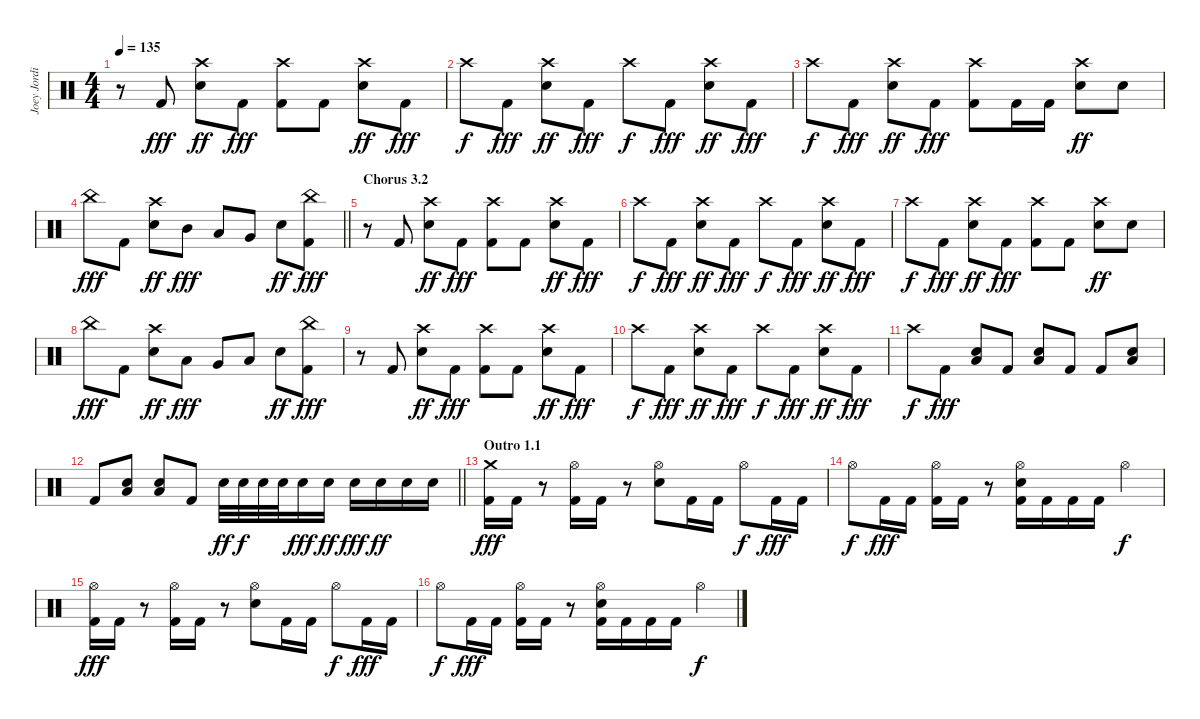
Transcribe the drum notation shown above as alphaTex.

\track ("Joey Jordison" "Joey Jordi") {instrument percussion}
\staff {score}
\articulation defaults
\ts (4 4)
\tempo 135
\clef neutral
\ks c
r.8{dy fff} "Kick (hit) 2".8 ("Crash high (hit)" "Electric Snare (hit)").8{dy ff} "Kick (hit) 2".8{dy fff} ("Crash high (hit)" "Kick (hit) 2").8 "Kick (hit) 2".8 ("Crash high (hit)" "Electric Snare (hit)").8{dy ff} "Kick (hit) 2".8{dy fff} |
"Crash high (hit)".8{dy f} "Kick (hit) 2".8{dy fff} ("Crash high (hit)" "Electric Snare (hit)").8{dy ff} "Kick (hit) 2".8{dy fff} "Crash high (hit)".8{dy f} "Kick (hit) 2".8{dy fff} ("Crash high (hit)" "Electric Snare (hit)").8{dy ff} "Kick (hit) 2".8{dy fff} |
"Crash high (hit)".8{dy f} "Kick (hit) 2".8{dy fff} ("Crash high (hit)" "Electric Snare (hit)").8{dy ff} "Kick (hit) 2".8{dy fff} ("Crash high (hit)" "Kick (hit) 2").8 "Kick (hit) 2".16 "Kick (hit) 2".16 ("Crash high (hit)" "Electric Snare (hit)").8{dy ff} "Electric Snare (hit)".8 |
\barLineRight lightlight "China (hit)".8{dy fff} "Kick (hit) 2".8
("Crash high (hit)" "Electric Snare (hit)").8{dy ff} "Mid Tom (hit)".8{dy fff} "Low Tom (hit)".8 "Very Low Tom (hit)".8 "Electric Snare (hit)".8{dy ff} ("China (hit)" "Kick (hit) 2").8{dy fff} |
\section ("" "Chorus 3.2")
r.8 "Kick (hit) 2".8 ("Crash high (hit)" "Electric Snare (hit)").8{dy ff} "Kick (hit) 2".8{dy fff} ("Crash high (hit)" "Kick (hit) 2").8 "Kick (hit) 2".8 ("Crash high (hit)" "Electric Snare (hit)").8{dy ff} "Kick (hit) 2".8{dy fff} |
"Crash high (hit)".8{dy f} "Kick (hit) 2".8{dy fff} ("Crash high (hit)" "Electric Snare (hit)").8{dy ff} "Kick (hit) 2".8{dy fff} "Crash high (hit)".8{dy f} "Kick (hit) 2".8{dy fff} ("Crash high (hit)" "Electric Snare (hit)").8{dy ff} "Kick (hit) 2".8{dy fff} |
"Crash high (hit)".8{dy f} "Kick (hit) 2".8{dy fff} ("Crash high (hit)" "Electric Snare (hit)").8{dy ff} "Kick (hit) 2".8{dy fff} ("Crash high (hit)" "Kick (hit) 2").8 "Kick (hit) 2".8 ("Crash high (hit)" "Electric Snare (hit)").8{dy ff} "Electric Snare (hit)".8 |
"China (hit)".8{dy fff} "Kick (hit) 2".8 ("Crash high (hit)" "Electric Snare (hit)").8{dy ff} "Low Tom (hit)".8{dy fff} "Very Low Tom (hit)".8 "Low Floor Tom (hit)".8 "Electric Snare (hit)".8{dy ff} ("China (hit)" "Kick (hit) 2").8{dy fff} |
r.8 "Kick (hit) 2".8 ("Crash high (hit)" "Electric Snare (hit)").8{dy ff} "Kick (hit) 2".8{dy fff} ("Crash high (hit)" "Kick (hit) 2").8 "Kick (hit) 2".8 ("Crash high (hit)" "Electric Snare (hit)").8{dy ff} "Kick (hit) 2".8{dy fff} |
"Crash high (hit)".8{dy f} "Kick (hit) 2".8{dy fff} ("Crash high (hit)" "Electric Snare (hit)").8{dy ff} "Kick (hit) 2".8{dy fff} "Crash high (hit)".8{dy f} "Kick (hit) 2".8{dy fff} ("Crash high (hit)" "Electric Snare (hit)").8{dy ff} "Kick (hit) 2".8{dy fff} |
"Crash high (hit)".8{dy f} "Kick (hit) 2".8{dy fff} ("Electric Snare (hit)" "Low Floor Tom (hit)").8 "Kick (hit) 2".8 ("Electric Snare (hit)" "Low Floor Tom (hit)").8 "Kick (hit) 2".8 "Kick (hit) 2".8 ("Electric Snare (hit)" "Low Floor Tom (hit)").8 |
\barLineRight lightlight "Kick (hit) 2".8
("Electric Snare (hit)" "Low Floor Tom (hit)").8 ("Electric Snare (hit)" "Low Floor Tom (hit)").8 "Kick (hit) 2".8 "Electric Snare (hit)".32{dy ff} "Electric Snare (hit)".32{dy f} "Electric Snare (hit)".32 "Electric Snare (hit)".32 "Electric Snare (hit)".16{dy fff} "Electric Snare (hit)".16{dy ff} "Electric Snare (hit)".16{dy fff} "Electric Snare (hit)".16{dy ff} "Electric Snare (hit)".16 "Electric Snare (hit)".16 |
\section ("" "Outro 1.1")
("Crash medium (hit)" "Kick (hit) 2").16{dy fff} "Kick (hit) 2".16 r.8 ("Hi-Hat (open)" "Kick (hit) 2").16 "Kick (hit) 2".16 r.8 ("Hi-Hat (open)" "Electric Snare (hit)").8 "Kick (hit) 2".16 "Kick (hit) 2".16 "Hi-Hat (open)".8{dy f} "Kick (hit) 2".16{dy fff} "Kick (hit) 2".16 |
"Hi-Hat (open)".8{dy f} "Kick (hit) 2".16{dy fff} "Kick (hit) 2".16 ("Hi-Hat (open)" "Kick (hit) 2").16 "Kick (hit) 2".16 r.8 ("Hi-Hat (open)" "Electric Snare (hit)" "Kick (hit) 2").16 "Kick (hit) 2".16 "Kick (hit) 2".16 "Kick (hit) 2".16 "Hi-Hat (open)".4{dy f} |
("Hi-Hat (open)" "Kick (hit) 2").16{dy fff} "Kick (hit) 2".16 r.8 ("Hi-Hat (open)" "Kick (hit) 2").16 "Kick (hit) 2".16 r.8 ("Hi-Hat (open)" "Electric Snare (hit)").8 "Kick (hit) 2".16 "Kick (hit) 2".16 "Hi-Hat (open)".8{dy f} "Kick (hit) 2".16{dy fff} "Kick (hit) 2".16 |
"Hi-Hat (open)".8{dy f} "Kick (hit) 2".16{dy fff} "Kick (hit) 2".16 ("Hi-Hat (open)" "Kick (hit) 2").16 "Kick (hit) 2".16 r.8 ("Hi-Hat (open)" "Electric Snare (hit)" "Kick (hit) 2").16 "Kick (hit) 2".16 "Kick (hit) 2".16 "Kick (hit) 2".16 "Hi-Hat (open)".4{dy f}
